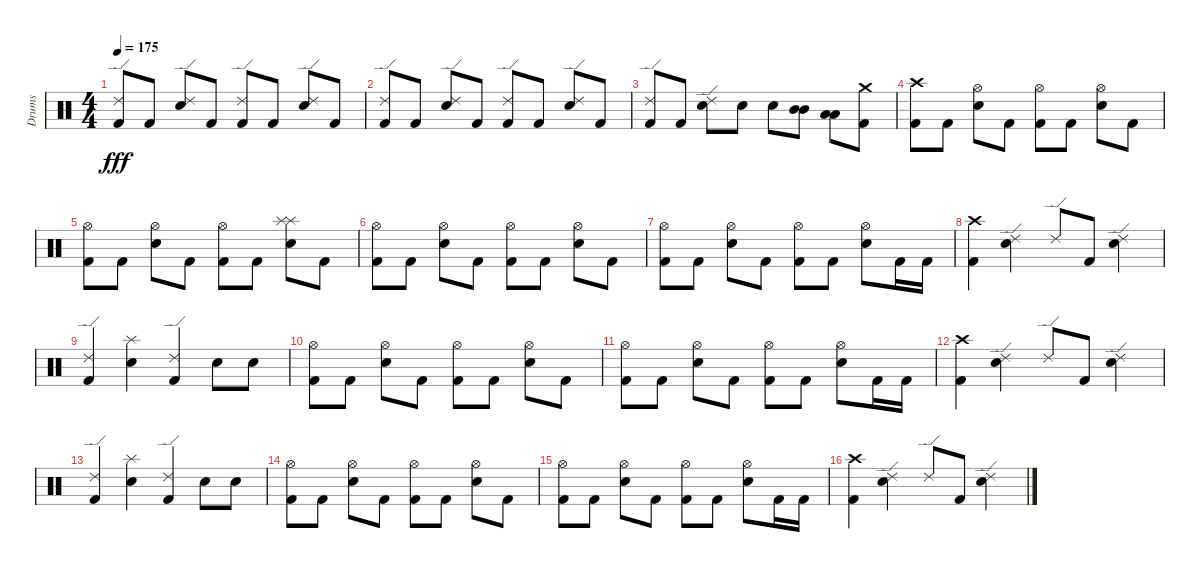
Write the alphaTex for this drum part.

\track ("Drums" "Drums") {instrument percussion}
\staff {score}
\articulation defaults
\ts (4 4)
\tempo 175
\clef neutral
\ks c
("Kick (hit) 2" "Ride (edge) 2").8{dy fff} "Kick (hit) 2".8 ("Electric Snare (hit)" "Ride (edge) 2").8 "Kick (hit) 2".8 ("Kick (hit) 2" "Ride (edge) 2").8 "Kick (hit) 2".8 ("Electric Snare (hit)" "Ride (edge) 2").8 "Kick (hit) 2".8 |
("Kick (hit) 2" "Ride (edge) 2").8 "Kick (hit) 2".8 ("Electric Snare (hit)" "Ride (edge) 2").8 "Kick (hit) 2".8 ("Kick (hit) 2" "Ride (edge) 2").8 "Kick (hit) 2".8 ("Electric Snare (hit)" "Ride (edge) 2").8 "Kick (hit) 2".8 |
("Kick (hit) 2" "Ride (edge) 2").8 "Kick (hit) 2".8 ("Electric Snare (hit)" "Ride (edge) 2").8 "Electric Snare (hit)".8 "Electric Snare (hit)".8 ("Mid Tom (hit)" "Mid Tom (hit)").8 ("Low Tom (hit)" "Low Tom (hit)").8 ("Kick (hit) 2" "Crash medium (hit)").8 |
("Kick (hit) 2" "Crash high (hit)").8 "Kick (hit) 2".8 ("Electric Snare (hit)" "Hi-Hat (open)").8 "Kick (hit) 2".8 ("Kick (hit) 2" "Hi-Hat (open)").8 "Kick (hit) 2".8 ("Electric Snare (hit)" "Hi-Hat (open)").8 "Kick (hit) 2".8 |
("Kick (hit) 2" "Hi-Hat (open)").8 "Kick (hit) 2".8 ("Electric Snare (hit)" "Hi-Hat (open)").8 "Kick (hit) 2".8 ("Kick (hit) 2" "Hi-Hat (open)").8 "Kick (hit) 2".8 ("Electric Snare (hit)" "Splash (hit)" "Splash (hit)").8 "Kick (hit) 2".8 |
("Kick (hit) 2" "Hi-Hat (open)").8 "Kick (hit) 2".8 ("Electric Snare (hit)" "Hi-Hat (open)").8 "Kick (hit) 2".8 ("Kick (hit) 2" "Hi-Hat (open)").8 "Kick (hit) 2".8 ("Electric Snare (hit)" "Hi-Hat (open)").8 "Kick (hit) 2".8 |
("Kick (hit) 2" "Hi-Hat (open)").8 "Kick (hit) 2".8 ("Electric Snare (hit)" "Hi-Hat (open)").8 "Kick (hit) 2".8 ("Kick (hit) 2" "Hi-Hat (open)").8 "Kick (hit) 2".8 ("Electric Snare (hit)" "Hi-Hat (open)").8 "Kick (hit) 2".16 "Kick (hit) 2".16 |
("Kick (hit) 2" "Crash high (hit)").4 ("Electric Snare (hit)" "Ride (edge) 2").4 "Ride (edge) 2".8 "Kick (hit) 2".8 ("Electric Snare (hit)" "Ride (edge) 2").4 |
("Kick (hit) 2" "Ride (edge) 2").4 ("Electric Snare (hit)" "Splash (hit)").4 ("Kick (hit) 2" "Ride (edge) 2").4 "Electric Snare (hit)".8 "Electric Snare (hit)".8 |
("Kick (hit) 2" "Hi-Hat (open)").8 "Kick (hit) 2".8 ("Electric Snare (hit)" "Hi-Hat (open)").8 "Kick (hit) 2".8 ("Kick (hit) 2" "Hi-Hat (open)").8 "Kick (hit) 2".8 ("Electric Snare (hit)" "Hi-Hat (open)").8 "Kick (hit) 2".8 |
("Kick (hit) 2" "Hi-Hat (open)").8 "Kick (hit) 2".8 ("Electric Snare (hit)" "Hi-Hat (open)").8 "Kick (hit) 2".8 ("Kick (hit) 2" "Hi-Hat (open)").8 "Kick (hit) 2".8 ("Electric Snare (hit)" "Hi-Hat (open)").8 "Kick (hit) 2".16 "Kick (hit) 2".16 |
("Kick (hit) 2" "Crash high (hit)").4 ("Electric Snare (hit)" "Ride (edge) 2").4 "Ride (edge) 2".8 "Kick (hit) 2".8 ("Electric Snare (hit)" "Ride (edge) 2").4 |
("Kick (hit) 2" "Ride (edge) 2").4 ("Electric Snare (hit)" "Splash (hit)").4 ("Kick (hit) 2" "Ride (edge) 2").4 "Electric Snare (hit)".8 "Electric Snare (hit)".8 |
("Kick (hit) 2" "Hi-Hat (open)").8 "Kick (hit) 2".8 ("Electric Snare (hit)" "Hi-Hat (open)").8 "Kick (hit) 2".8 ("Kick (hit) 2" "Hi-Hat (open)").8 "Kick (hit) 2".8 ("Electric Snare (hit)" "Hi-Hat (open)").8 "Kick (hit) 2".8 |
("Kick (hit) 2" "Hi-Hat (open)").8 "Kick (hit) 2".8 ("Electric Snare (hit)" "Hi-Hat (open)").8 "Kick (hit) 2".8 ("Kick (hit) 2" "Hi-Hat (open)").8 "Kick (hit) 2".8 ("Electric Snare (hit)" "Hi-Hat (open)").8 "Kick (hit) 2".16 "Kick (hit) 2".16 |
("Kick (hit) 2" "Crash high (hit)").4 ("Electric Snare (hit)" "Ride (edge) 2").4 "Ride (edge) 2".8 "Kick (hit) 2".8 ("Electric Snare (hit)" "Ride (edge) 2").4
